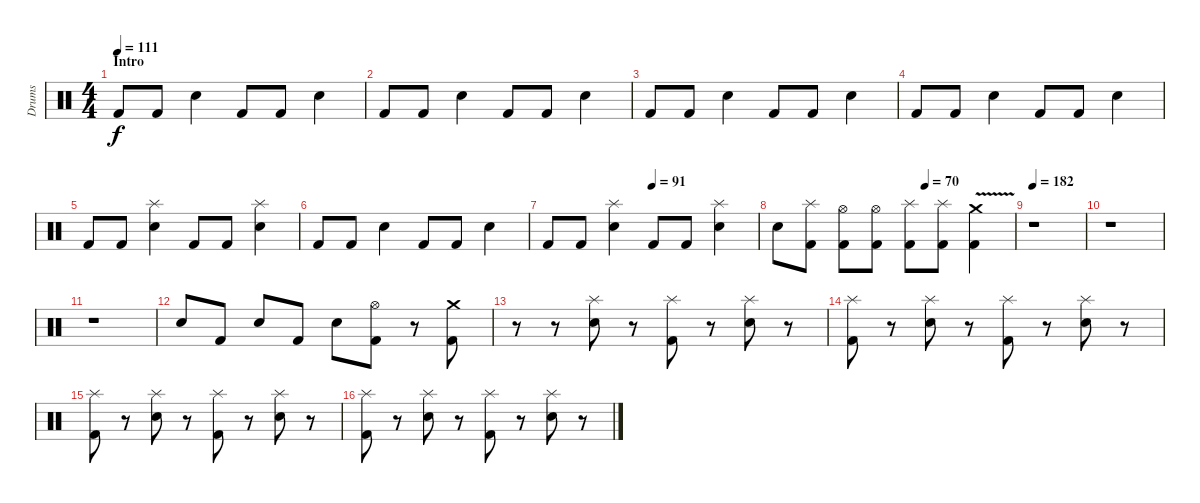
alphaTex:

\track ("Drums" "Drums") {instrument percussion}
\staff {score}
\articulation defaults
\ts (4 4)
\section ("" "Intro")
\tempo 111
\clef neutral
\ks c "Kick (hit) 2".8{dy f} "Kick (hit) 2".8 "Snare (hit) 2".4 "Kick (hit) 2".8 "Kick (hit) 2".8 "Snare (hit) 2".4
|
"Kick (hit) 2".8 "Kick (hit) 2".8 "Snare (hit) 2".4 "Kick (hit) 2".8 "Kick (hit) 2".8 "Snare (hit) 2".4 |
"Kick (hit) 2".8 "Kick (hit) 2".8 "Snare (hit) 2".4 "Kick (hit) 2".8 "Kick (hit) 2".8 "Snare (hit) 2".4 |
"Kick (hit) 2".8 "Kick (hit) 2".8 "Snare (hit) 2".4 "Kick (hit) 2".8 "Kick (hit) 2".8 "Snare (hit) 2".4 |
"Kick (hit) 2".8 "Kick (hit) 2".8 ("Splash (hit)" "Snare (hit) 2").4 "Kick (hit) 2".8 "Kick (hit) 2".8 ("Splash (hit)" "Snare (hit) 2").4 |
"Kick (hit) 2".8 "Kick (hit) 2".8 "Snare (hit) 2".4 "Kick (hit) 2".8 "Kick (hit) 2".8 "Snare (hit) 2".4 |
\tempo (91 0.5)
"Kick (hit) 2".8 "Kick (hit) 2".8 ("Splash (hit)" "Snare (hit) 2").4 "Kick (hit) 2".8 "Kick (hit) 2".8 ("Splash (hit)" "Snare (hit) 2").4 |
\tempo (70 0.625)
"Snare (hit) 2".8 ("Splash (hit)" "Kick (hit) 2").8 ("Hi-Hat (open)" "Kick (hit) 2").8 ("Hi-Hat (open)" "Kick (hit) 2").8 ("Splash (hit)" "Kick (hit) 2").8 ("Splash (hit)" "Kick (hit) 2").8 ("Crash medium (hit)"{v} "Kick (hit) 2").4 |
\tempo 182
r.1 |
r.1 |
r.1 |
"Snare (hit) 2".8 "Kick (hit) 2".8 "Snare (hit) 2".8 "Kick (hit) 2".8 "Snare (hit) 2".8 ("Hi-Hat (open)" "Kick (hit) 2").8 r.8 ("Crash medium (hit)" "Kick (hit) 2").8 |
r.8 r.8 ("Splash (hit)" "Snare (hit) 2").8 r.8 ("Splash (hit)" "Kick (hit) 2").8 r.8 ("Splash (hit)" "Snare (hit) 2").8 r.8 |
("Splash (hit)" "Kick (hit) 2").8 r.8 ("Splash (hit)" "Snare (hit) 2").8 r.8 ("Splash (hit)" "Kick (hit) 2").8 r.8 ("Splash (hit)" "Snare (hit) 2").8 r.8 |
("Splash (hit)" "Kick (hit) 2").8 r.8 ("Splash (hit)" "Snare (hit) 2").8 r.8 ("Splash (hit)" "Kick (hit) 2").8 r.8 ("Splash (hit)" "Snare (hit) 2").8 r.8 |
("Splash (hit)" "Kick (hit) 2").8 r.8 ("Splash (hit)" "Snare (hit) 2").8 r.8 ("Splash (hit)" "Kick (hit) 2").8 r.8 ("Splash (hit)" "Snare (hit) 2").8 r.8
